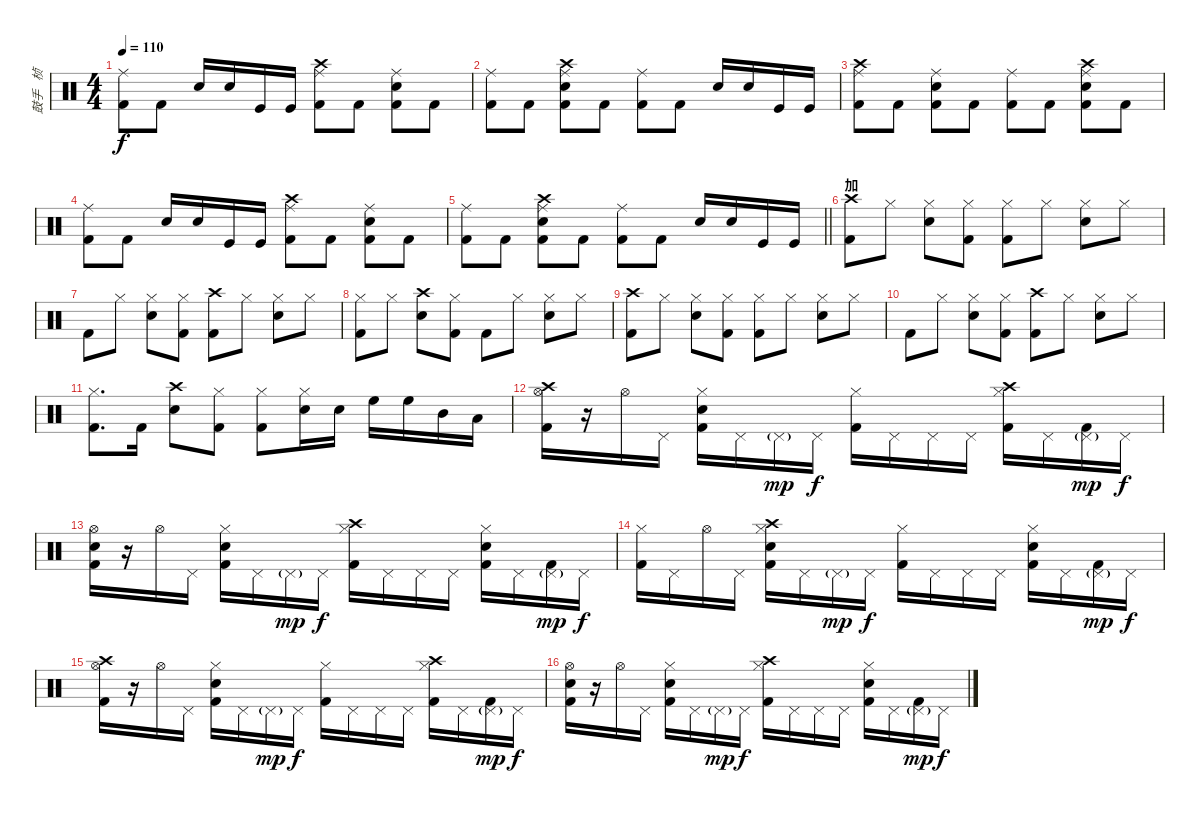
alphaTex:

\track ("鼓手   桢" "鼓手   桢") {instrument percussion bank 1}
\staff {score}
\articulation defaults
\ts (4 4)
\tempo 110
\clef neutral
\ks c
("Ride (middle)" "Kick (hit) 2").8{dy f} "Kick (hit) 2".8 "Snare (hit) 2".16 "Snare (hit) 2".16 "Kick (hit)".16 "Kick (hit)".16 ("Ride (middle)" "Kick (hit) 2" "Crash high (hit)").8 "Kick (hit) 2".8 ("Ride (middle)" "Snare (hit) 2" "Kick (hit) 2").8 "Kick (hit) 2".8 |
("Ride (middle)" "Kick (hit) 2").8 "Kick (hit) 2".8 ("Ride (middle)" "Snare (hit) 2" "Kick (hit) 2" "Crash high (hit)").8 "Kick (hit) 2".8 ("Ride (middle)" "Kick (hit) 2").8 "Kick (hit) 2".8 "Snare (hit) 2".16 "Snare (hit) 2".16 "Kick (hit)".16 "Kick (hit)".16 |
("Ride (middle)" "Kick (hit) 2" "Crash high (hit)").8 "Kick (hit) 2".8 ("Ride (middle)" "Snare (hit) 2" "Kick (hit) 2").8 "Kick (hit) 2".8 ("Ride (middle)" "Kick (hit) 2").8 "Kick (hit) 2".8 ("Ride (middle)" "Snare (hit) 2" "Kick (hit) 2" "Crash high (hit)").8 "Kick (hit) 2".8 |
("Ride (middle)" "Kick (hit) 2").8 "Kick (hit) 2".8 "Snare (hit) 2".16 "Snare (hit) 2".16 "Kick (hit)".16 "Kick (hit)".16 ("Ride (middle)" "Kick (hit) 2" "Crash high (hit)").8 "Kick (hit) 2".8 ("Ride (middle)" "Snare (hit) 2" "Kick (hit) 2").8 "Kick (hit) 2".8 |
\barLineRight lightlight
("Ride (middle)" "Kick (hit) 2").8 "Kick (hit) 2".8 ("Ride (middle)" "Snare (hit) 2" "Kick (hit) 2" "Crash high (hit)").8 "Kick (hit) 2".8 ("Ride (middle)" "Kick (hit) 2").8 "Kick (hit) 2".8 "Snare (hit) 2".16 "Snare (hit) 2".16 "Kick (hit)".16 "Kick (hit)".16 |
\section ("" "加")
("Crash high (hit)" "Kick (hit) 2").8 "Hi-Hat (closed)".8 ("Hi-Hat (closed)" "Snare (hit) 2").8 ("Hi-Hat (closed)" "Kick (hit) 2").8 ("Hi-Hat (closed)" "Kick (hit) 2").8 "Hi-Hat (closed)".8 ("Hi-Hat (closed)" "Snare (hit) 2").8 "Hi-Hat (closed)".8 |
"Kick (hit) 2".8 "Hi-Hat (closed)".8 ("Hi-Hat (closed)" "Snare (hit) 2").8 ("Hi-Hat (closed)" "Kick (hit) 2").8 ("Crash high (hit)" "Kick (hit) 2").8 "Hi-Hat (closed)".8 ("Hi-Hat (closed)" "Snare (hit) 2").8 "Hi-Hat (closed)".8 |
("Hi-Hat (closed)" "Kick (hit) 2").8 "Hi-Hat (closed)".8 ("Crash high (hit)" "Snare (hit) 2").8 ("Hi-Hat (closed)" "Kick (hit) 2").8 "Kick (hit) 2".8 "Hi-Hat (closed)".8 ("Hi-Hat (closed)" "Snare (hit) 2").8 "Hi-Hat (closed)".8 |
("Crash high (hit)" "Kick (hit) 2").8 "Hi-Hat (closed)".8 ("Hi-Hat (closed)" "Snare (hit) 2").8 ("Hi-Hat (closed)" "Kick (hit) 2").8 ("Hi-Hat (closed)" "Kick (hit) 2").8 "Hi-Hat (closed)".8 ("Hi-Hat (closed)" "Snare (hit) 2").8 "Hi-Hat (closed)".8 |
"Kick (hit) 2".8 "Hi-Hat (closed)".8 ("Hi-Hat (closed)" "Snare (hit) 2").8 ("Hi-Hat (closed)" "Kick (hit) 2").8 ("Crash high (hit)" "Kick (hit) 2").8 "Hi-Hat (closed)".8 ("Hi-Hat (closed)" "Snare (hit) 2").8 "Hi-Hat (closed)".8 |
("Hi-Hat (closed)" "Kick (hit) 2").8{d} "Kick (hit) 2".16 ("Crash high (hit)" "Snare (hit) 2").8 ("Hi-Hat (closed)" "Kick (hit) 2").8 ("Hi-Hat (closed)" "Kick (hit) 2").8 ("Hi-Hat (closed)" "Snare (hit) 2").16 "Snare (hit) 2".16 "High Floor Tom (hit)".16 "High Floor Tom (hit)".16 "Mid Tom (hit)".16 "Low Tom (hit)".16 |
("Hi-Hat (open)" "Kick (hit) 2" "Crash high (hit)").16 r.16 "Hi-Hat (open)".16 "Pedal Hi-Hat (hit)".16 ("Hi-Hat (closed)" "Snare (hit) 2" "Kick (hit) 2").16 "Pedal Hi-Hat (hit)".16 "Pedal Hi-Hat (hit)"{g}.16{dy mp} "Pedal Hi-Hat (hit)".16{dy f} ("Hi-Hat (closed)" "Kick (hit) 2").16 "Pedal Hi-Hat (hit)".16 "Pedal Hi-Hat (hit)".16 "Pedal Hi-Hat (hit)".16 ("Hi-Hat (closed)" "Kick (hit) 2" "Crash high (hit)").16 "Pedal Hi-Hat (hit)".16 ("Pedal Hi-Hat (hit)"{g} "Kick (hit) 2").16{dy mp} "Pedal Hi-Hat (hit)".16{dy f} |
("Hi-Hat (open)" "Snare (hit) 2" "Kick (hit) 2").16 r.16 "Hi-Hat (open)".16 "Pedal Hi-Hat (hit)".16 ("Hi-Hat (closed)" "Snare (hit) 2" "Kick (hit) 2").16 "Pedal Hi-Hat (hit)".16 "Pedal Hi-Hat (hit)"{g}.16{dy mp} "Pedal Hi-Hat (hit)".16{dy f} ("Hi-Hat (closed)" "Kick (hit) 2" "Crash high (hit)").16 "Pedal Hi-Hat (hit)".16 "Pedal Hi-Hat (hit)".16 "Pedal Hi-Hat (hit)".16 ("Hi-Hat (closed)" "Snare (hit) 2" "Kick (hit) 2").16 "Pedal Hi-Hat (hit)".16 ("Pedal Hi-Hat (hit)"{g} "Kick (hit) 2").16{dy mp} "Pedal Hi-Hat (hit)".16{dy f} |
("Hi-Hat (closed)" "Kick (hit) 2").16 "Pedal Hi-Hat (hit)".16 "Hi-Hat (open)".16 "Pedal Hi-Hat (hit)".16 ("Hi-Hat (closed)" "Snare (hit) 2" "Kick (hit) 2" "Crash high (hit)").16 "Pedal Hi-Hat (hit)".16 "Pedal Hi-Hat (hit)"{g}.16{dy mp} "Pedal Hi-Hat (hit)".16{dy f} ("Hi-Hat (closed)" "Kick (hit) 2").16 "Pedal Hi-Hat (hit)".16 "Pedal Hi-Hat (hit)".16 "Pedal Hi-Hat (hit)".16 ("Hi-Hat (closed)" "Snare (hit) 2" "Kick (hit) 2").16 "Pedal Hi-Hat (hit)".16 ("Pedal Hi-Hat (hit)"{g} "Kick (hit) 2").16{dy mp} "Pedal Hi-Hat (hit)".16{dy f} |
("Hi-Hat (open)" "Kick (hit) 2" "Crash high (hit)").16 r.16 "Hi-Hat (open)".16 "Pedal Hi-Hat (hit)".16 ("Hi-Hat (closed)" "Snare (hit) 2" "Kick (hit) 2").16 "Pedal Hi-Hat (hit)".16 "Pedal Hi-Hat (hit)"{g}.16{dy mp} "Pedal Hi-Hat (hit)".16{dy f} ("Hi-Hat (closed)" "Kick (hit) 2").16 "Pedal Hi-Hat (hit)".16 "Pedal Hi-Hat (hit)".16 "Pedal Hi-Hat (hit)".16 ("Hi-Hat (closed)" "Kick (hit) 2" "Crash high (hit)").16 "Pedal Hi-Hat (hit)".16 ("Pedal Hi-Hat (hit)"{g} "Kick (hit) 2").16{dy mp} "Pedal Hi-Hat (hit)".16{dy f} |
("Hi-Hat (open)" "Snare (hit) 2" "Kick (hit) 2").16 r.16 "Hi-Hat (open)".16 "Pedal Hi-Hat (hit)".16 ("Hi-Hat (closed)" "Snare (hit) 2" "Kick (hit) 2").16 "Pedal Hi-Hat (hit)".16 "Pedal Hi-Hat (hit)"{g}.16{dy mp} "Pedal Hi-Hat (hit)".16{dy f} ("Hi-Hat (closed)" "Kick (hit) 2" "Crash high (hit)").16 "Pedal Hi-Hat (hit)".16 "Pedal Hi-Hat (hit)".16 "Pedal Hi-Hat (hit)".16 ("Hi-Hat (closed)" "Snare (hit) 2" "Kick (hit) 2").16 "Pedal Hi-Hat (hit)".16 ("Pedal Hi-Hat (hit)"{g} "Kick (hit) 2").16{dy mp} "Pedal Hi-Hat (hit)".16{dy f}
